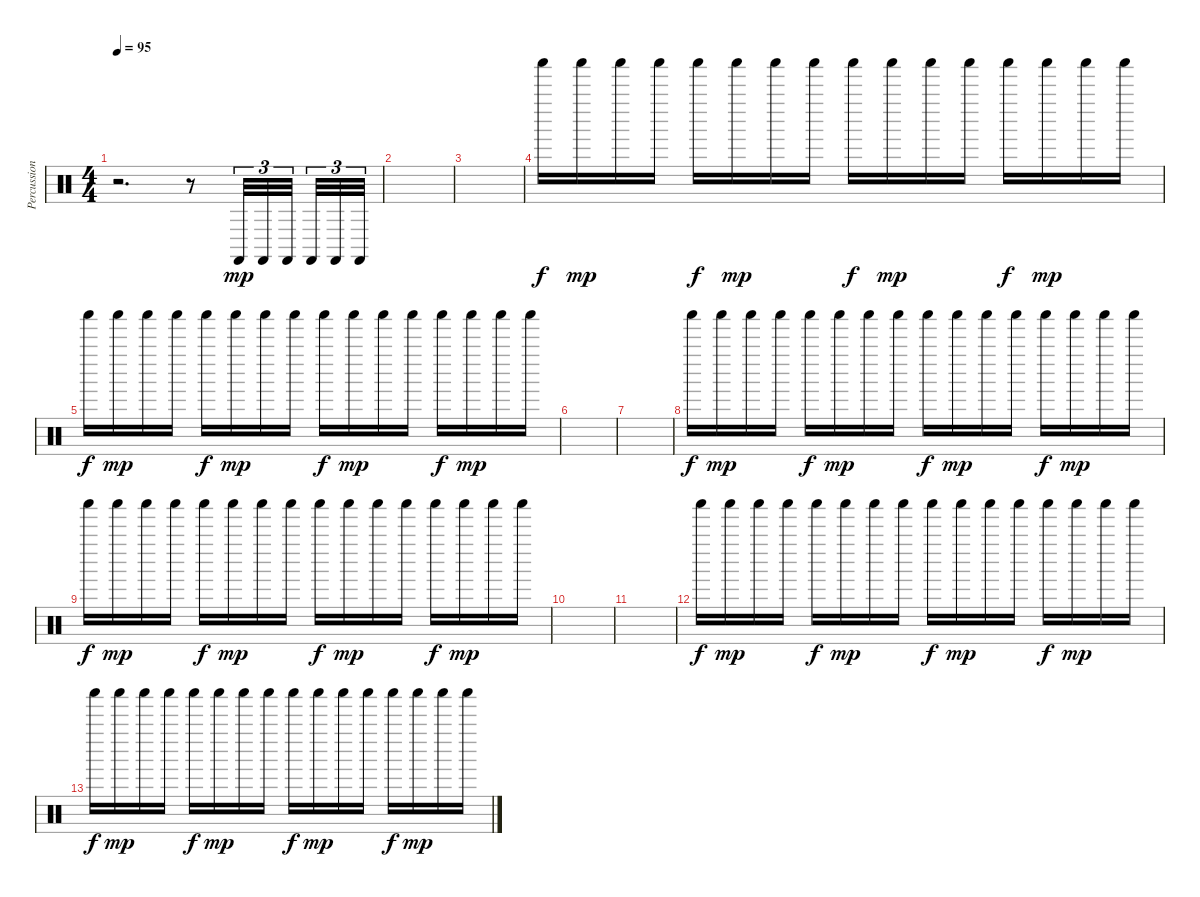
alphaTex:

\track ("Percussion" "Percussion") {instrument percussion}
\staff {score}
\articulation defaults
\ts (4 4)
\tempo 95
\clef neutral
\ks c
r.2{d dy f} r.8 "Castanets (hit)".32{tu (3 2) dy mp} "Castanets (hit)".32{tu (3 2)} "Castanets (hit)".32{tu (3 2)} "Castanets (hit)".32{tu (3 2)} "Castanets (hit)".32{tu (3 2)} "Castanets (hit)".32{tu (3 2)} |
|
|
"Shaker (hit)".16{dy f} "Shaker (hit)".16{dy mp} "Shaker (hit)".16 "Shaker (hit)".16 "Shaker (hit)".16{dy f} "Shaker (hit)".16{dy mp} "Shaker (hit)".16 "Shaker (hit)".16 "Shaker (hit)".16{dy f} "Shaker (hit)".16{dy mp} "Shaker (hit)".16 "Shaker (hit)".16 "Shaker (hit)".16{dy f} "Shaker (hit)".16{dy mp} "Shaker (hit)".16 "Shaker (hit)".16 |
"Shaker (hit)".16{dy f} "Shaker (hit)".16{dy mp} "Shaker (hit)".16 "Shaker (hit)".16 "Shaker (hit)".16{dy f} "Shaker (hit)".16{dy mp} "Shaker (hit)".16 "Shaker (hit)".16 "Shaker (hit)".16{dy f} "Shaker (hit)".16{dy mp} "Shaker (hit)".16 "Shaker (hit)".16 "Shaker (hit)".16{dy f} "Shaker (hit)".16{dy mp} "Shaker (hit)".16 "Shaker (hit)".16 |
|
|
"Shaker (hit)".16{dy f} "Shaker (hit)".16{dy mp} "Shaker (hit)".16 "Shaker (hit)".16 "Shaker (hit)".16{dy f} "Shaker (hit)".16{dy mp} "Shaker (hit)".16 "Shaker (hit)".16 "Shaker (hit)".16{dy f} "Shaker (hit)".16{dy mp} "Shaker (hit)".16 "Shaker (hit)".16 "Shaker (hit)".16{dy f} "Shaker (hit)".16{dy mp} "Shaker (hit)".16 "Shaker (hit)".16 |
"Shaker (hit)".16{dy f} "Shaker (hit)".16{dy mp} "Shaker (hit)".16 "Shaker (hit)".16 "Shaker (hit)".16{dy f} "Shaker (hit)".16{dy mp} "Shaker (hit)".16 "Shaker (hit)".16 "Shaker (hit)".16{dy f} "Shaker (hit)".16{dy mp} "Shaker (hit)".16 "Shaker (hit)".16 "Shaker (hit)".16{dy f} "Shaker (hit)".16{dy mp} "Shaker (hit)".16 "Shaker (hit)".16 |
|
|
"Shaker (hit)".16{dy f} "Shaker (hit)".16{dy mp} "Shaker (hit)".16 "Shaker (hit)".16 "Shaker (hit)".16{dy f} "Shaker (hit)".16{dy mp} "Shaker (hit)".16 "Shaker (hit)".16 "Shaker (hit)".16{dy f} "Shaker (hit)".16{dy mp} "Shaker (hit)".16 "Shaker (hit)".16 "Shaker (hit)".16{dy f} "Shaker (hit)".16{dy mp} "Shaker (hit)".16 "Shaker (hit)".16 |
"Shaker (hit)".16{dy f} "Shaker (hit)".16{dy mp} "Shaker (hit)".16 "Shaker (hit)".16 "Shaker (hit)".16{dy f} "Shaker (hit)".16{dy mp} "Shaker (hit)".16 "Shaker (hit)".16 "Shaker (hit)".16{dy f} "Shaker (hit)".16{dy mp} "Shaker (hit)".16 "Shaker (hit)".16 "Shaker (hit)".16{dy f} "Shaker (hit)".16{dy mp} "Shaker (hit)".16 "Shaker (hit)".16
